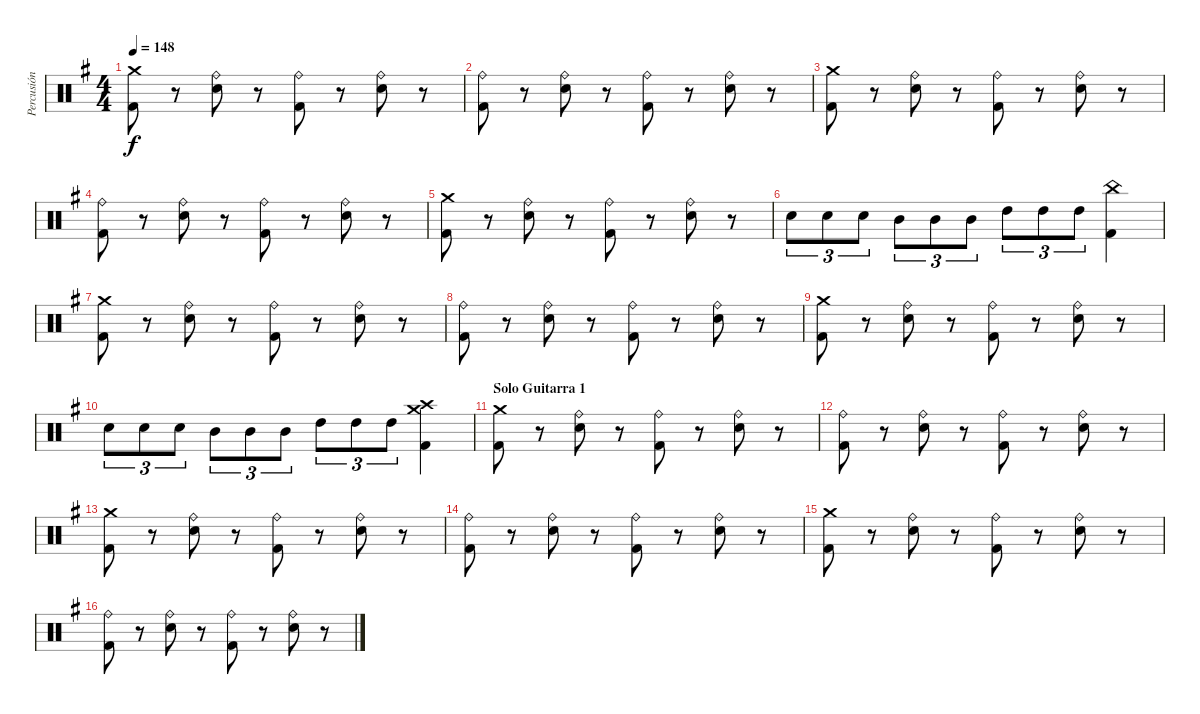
\track ("Percusión" "Percusión") {instrument percussion}
\staff {score}
\articulation defaults
\ts (4 4)
\tempo 148
\clef neutral
\ks g
("Crash medium (hit)" "Kick (hit) 2").8{dy f} r.8 ("Ride (bell)" "Snare (hit) 2").8 r.8 ("Ride (bell)" "Kick (hit) 2").8 r.8 ("Ride (bell)" "Snare (hit) 2").8 r.8 |
("Ride (bell)" "Kick (hit) 2").8 r.8 ("Ride (bell)" "Snare (hit) 2").8 r.8 ("Ride (bell)" "Kick (hit) 2").8 r.8 ("Ride (bell)" "Snare (hit) 2").8 r.8 |
("Crash medium (hit)" "Kick (hit) 2").8 r.8 ("Ride (bell)" "Snare (hit) 2").8 r.8 ("Ride (bell)" "Kick (hit) 2").8 r.8 ("Ride (bell)" "Snare (hit) 2").8 r.8 |
("Ride (bell)" "Kick (hit) 2").8 r.8 ("Ride (bell)" "Snare (hit) 2").8 r.8 ("Ride (bell)" "Kick (hit) 2").8 r.8 ("Ride (bell)" "Snare (hit) 2").8 r.8 |
("Crash medium (hit)" "Kick (hit) 2").8 r.8 ("Ride (bell)" "Snare (hit) 2").8 r.8 ("Ride (bell)" "Kick (hit) 2").8 r.8 ("Ride (bell)" "Snare (hit) 2").8 r.8 |
"Snare (hit) 2".8{tu (3 2)} "Snare (hit) 2".8{tu (3 2)} "Snare (hit) 2".8{tu (3 2)} "Mid Tom (hit)".8{tu (3 2)} "Mid Tom (hit)".8{tu (3 2)} "Mid Tom (hit)".8{tu (3 2)} "High Tom (hit)".8{tu (3 2)} "High Tom (hit)".8{tu (3 2)} "High Tom (hit)".8{tu (3 2)} ("China (hit)" "Kick (hit) 2").4 |
("Crash medium (hit)" "Kick (hit) 2").8 r.8 ("Ride (bell)" "Snare (hit) 2").8 r.8 ("Ride (bell)" "Kick (hit) 2").8 r.8 ("Ride (bell)" "Snare (hit) 2").8 r.8 |
("Ride (bell)" "Kick (hit) 2").8 r.8 ("Ride (bell)" "Snare (hit) 2").8 r.8 ("Ride (bell)" "Kick (hit) 2").8 r.8 ("Ride (bell)" "Snare (hit) 2").8 r.8 |
("Crash medium (hit)" "Kick (hit) 2").8 r.8 ("Ride (bell)" "Snare (hit) 2").8 r.8 ("Ride (bell)" "Kick (hit) 2").8 r.8 ("Ride (bell)" "Snare (hit) 2").8 r.8 |
"Snare (hit) 2".8{tu (3 2)} "Snare (hit) 2".8{tu (3 2)} "Snare (hit) 2".8{tu (3 2)} "Mid Tom (hit)".8{tu (3 2)} "Mid Tom (hit)".8{tu (3 2)} "Mid Tom (hit)".8{tu (3 2)} "High Tom (hit)".8{tu (3 2)} "High Tom (hit)".8{tu (3 2)} "High Tom (hit)".8{tu (3 2)} ("Crash medium (hit)" "Crash high (hit)" "Kick (hit) 2").4 |
\section ("" "Solo Guitarra 1")
("Crash medium (hit)" "Kick (hit) 2").8 r.8 ("Ride (bell)" "Snare (hit) 2").8 r.8 ("Ride (bell)" "Kick (hit) 2").8 r.8 ("Ride (bell)" "Snare (hit) 2").8 r.8 |
("Ride (bell)" "Kick (hit) 2").8 r.8 ("Ride (bell)" "Snare (hit) 2").8 r.8 ("Ride (bell)" "Kick (hit) 2").8 r.8 ("Ride (bell)" "Snare (hit) 2").8 r.8 |
("Crash medium (hit)" "Kick (hit) 2").8 r.8 ("Ride (bell)" "Snare (hit) 2").8 r.8 ("Ride (bell)" "Kick (hit) 2").8 r.8 ("Ride (bell)" "Snare (hit) 2").8 r.8 |
("Ride (bell)" "Kick (hit) 2").8 r.8 ("Ride (bell)" "Snare (hit) 2").8 r.8 ("Ride (bell)" "Kick (hit) 2").8 r.8 ("Ride (bell)" "Snare (hit) 2").8 r.8 |
("Crash medium (hit)" "Kick (hit) 2").8 r.8 ("Ride (bell)" "Snare (hit) 2").8 r.8 ("Ride (bell)" "Kick (hit) 2").8 r.8 ("Ride (bell)" "Snare (hit) 2").8 r.8 |
("Ride (bell)" "Kick (hit) 2").8 r.8 ("Ride (bell)" "Snare (hit) 2").8 r.8 ("Ride (bell)" "Kick (hit) 2").8 r.8 ("Ride (bell)" "Snare (hit) 2").8 r.8
